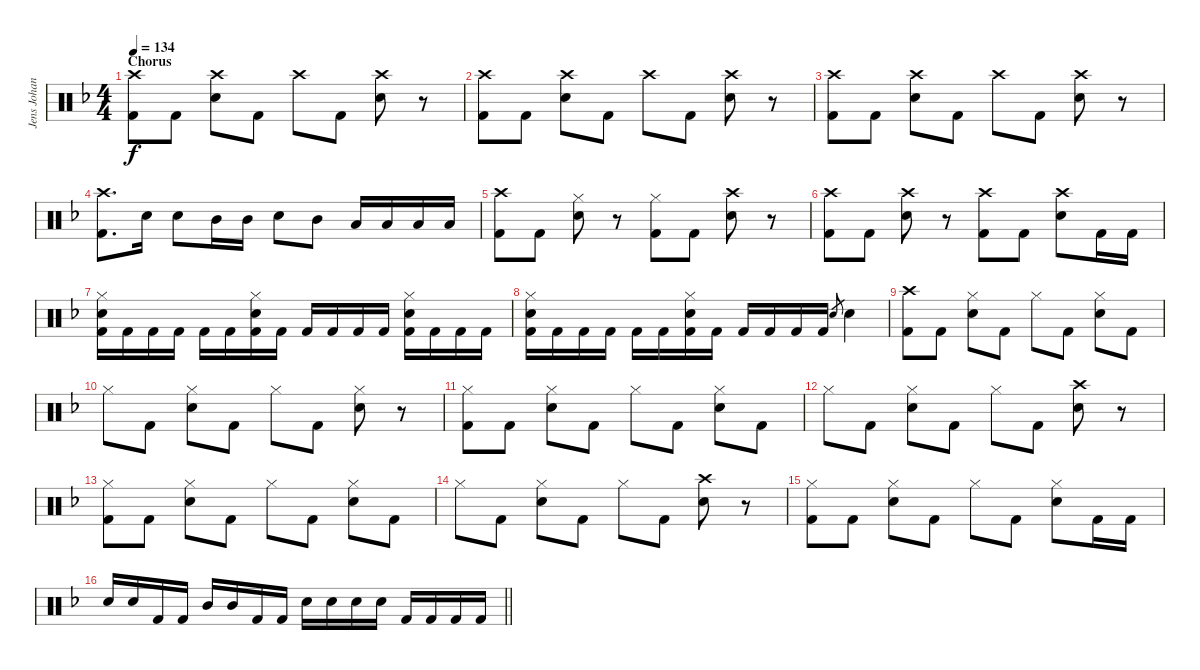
\track ("Jens Johansson" "Jens Johan") {instrument percussion}
\staff {score}
\articulation defaults
\ts (4 4)
\section ("" "Chorus")
\tempo 134
\clef neutral
\ks f
("Crash high (hit)" "Kick (hit) 2").8{dy f} "Kick (hit) 2".8 ("Crash high (hit)" "Electric Snare (hit)").8 "Kick (hit) 2".8 "Crash high (hit)".8 "Kick (hit) 2".8 ("Crash high (hit)" "Electric Snare (hit)").8 r.8 |
("Crash high (hit)" "Kick (hit) 2").8 "Kick (hit) 2".8 ("Crash high (hit)" "Electric Snare (hit)").8 "Kick (hit) 2".8 "Crash high (hit)".8 "Kick (hit) 2".8 ("Crash high (hit)" "Electric Snare (hit)").8 r.8 |
("Crash high (hit)" "Kick (hit) 2").8 "Kick (hit) 2".8 ("Crash high (hit)" "Electric Snare (hit)").8 "Kick (hit) 2".8 "Crash high (hit)".8 "Kick (hit) 2".8 ("Crash high (hit)" "Electric Snare (hit)").8 r.8 |
("Crash high (hit)" "Kick (hit) 2").8{d} "Electric Snare (hit)".16 "Electric Snare (hit)".8 "Mid Tom (hit)".16 "Mid Tom (hit)".16 "Electric Snare (hit)".8 "Mid Tom (hit)".8 "Low Tom (hit)".16 "Low Tom (hit)".16 "Low Tom (hit)".16 "Low Tom (hit)".16 |
("Crash high (hit)" "Kick (hit) 2").8 "Kick (hit) 2".8 ("Electric Snare (hit)" "Hi-Hat (closed)").8 r.8 ("Hi-Hat (closed)" "Kick (hit) 2").8 "Kick (hit) 2".8 ("Crash high (hit)" "Electric Snare (hit)").8 r.8 |
("Crash high (hit)" "Kick (hit) 2").8 "Kick (hit) 2".8 ("Crash high (hit)" "Electric Snare (hit)").8 r.8 ("Crash high (hit)" "Kick (hit) 2").8 "Kick (hit) 2".8 ("Crash high (hit)" "Electric Snare (hit)").8 "Kick (hit) 2".16 "Kick (hit) 2".16 |
("Electric Snare (hit)" "Hi-Hat (closed)" "Kick (hit) 2").16 "Kick (hit) 2".16 "Kick (hit) 2".16 "Kick (hit) 2".16 "Kick (hit) 2".16 "Kick (hit) 2".16 ("Electric Snare (hit)" "Hi-Hat (closed)" "Kick (hit) 2").16 "Kick (hit) 2".16 "Kick (hit) 2".16 "Kick (hit) 2".16 "Kick (hit) 2".16 "Kick (hit) 2".16 ("Electric Snare (hit)" "Hi-Hat (closed)" "Kick (hit) 2").16 "Kick (hit) 2".16 "Kick (hit) 2".16 "Kick (hit) 2".16 |
("Electric Snare (hit)" "Hi-Hat (closed)" "Kick (hit) 2").16 "Kick (hit) 2".16 "Kick (hit) 2".16 "Kick (hit) 2".16 "Kick (hit) 2".16 "Kick (hit) 2".16 ("Electric Snare (hit)" "Hi-Hat (closed)" "Kick (hit) 2").16 "Kick (hit) 2".16 "Kick (hit) 2".16 "Kick (hit) 2".16 "Kick (hit) 2".16 "Kick (hit) 2".16 "Electric Snare (hit)".8{gr} "Electric Snare (hit)".4 |
("Crash high (hit)" "Kick (hit) 2").8 "Kick (hit) 2".8 ("Electric Snare (hit)" "Hi-Hat (closed)").8 "Kick (hit) 2".8 "Hi-Hat (closed)".8 "Kick (hit) 2".8 ("Electric Snare (hit)" "Hi-Hat (closed)").8 "Kick (hit) 2".8 |
"Hi-Hat (closed)".8 "Kick (hit) 2".8 ("Electric Snare (hit)" "Hi-Hat (closed)").8 "Kick (hit) 2".8 "Hi-Hat (closed)".8 "Kick (hit) 2".8 ("Electric Snare (hit)" "Hi-Hat (closed)").8 r.8 |
("Hi-Hat (closed)" "Kick (hit) 2").8 "Kick (hit) 2".8 ("Electric Snare (hit)" "Hi-Hat (closed)").8 "Kick (hit) 2".8 "Hi-Hat (closed)".8 "Kick (hit) 2".8 ("Electric Snare (hit)" "Hi-Hat (closed)").8 "Kick (hit) 2".8 |
"Hi-Hat (closed)".8 "Kick (hit) 2".8 ("Electric Snare (hit)" "Hi-Hat (closed)").8 "Kick (hit) 2".8 "Hi-Hat (closed)".8 "Kick (hit) 2".8 ("Crash high (hit)" "Electric Snare (hit)").8 r.8 |
("Hi-Hat (closed)" "Kick (hit) 2").8 "Kick (hit) 2".8 ("Electric Snare (hit)" "Hi-Hat (closed)").8 "Kick (hit) 2".8 "Hi-Hat (closed)".8 "Kick (hit) 2".8 ("Electric Snare (hit)" "Hi-Hat (closed)").8 "Kick (hit) 2".8 |
"Hi-Hat (closed)".8 "Kick (hit) 2".8 ("Electric Snare (hit)" "Hi-Hat (closed)").8 "Kick (hit) 2".8 "Hi-Hat (closed)".8 "Kick (hit) 2".8 ("Crash high (hit)" "Electric Snare (hit)").8 r.8 |
("Hi-Hat (closed)" "Kick (hit) 2").8 "Kick (hit) 2".8 ("Electric Snare (hit)" "Hi-Hat (closed)").8 "Kick (hit) 2".8 "Hi-Hat (closed)".8 "Kick (hit) 2".8 ("Electric Snare (hit)" "Hi-Hat (closed)").8 "Kick (hit) 2".16 "Kick (hit) 2".16 |
\barLineRight lightlight "Electric Snare (hit)".16 "Electric Snare (hit)".16 "Kick (hit) 2".16 "Kick (hit) 2".16 "Mid Tom (hit)".16 "Mid Tom (hit)".16 "Kick (hit) 2".16 "Kick (hit) 2".16 "Electric Snare (hit)".16 "Electric Snare (hit)".16 "Electric Snare (hit)".16 "Electric Snare (hit)".16 "Kick (hit) 2".16 "Kick (hit) 2".16 "Kick (hit) 2".16 "Kick (hit) 2".16
